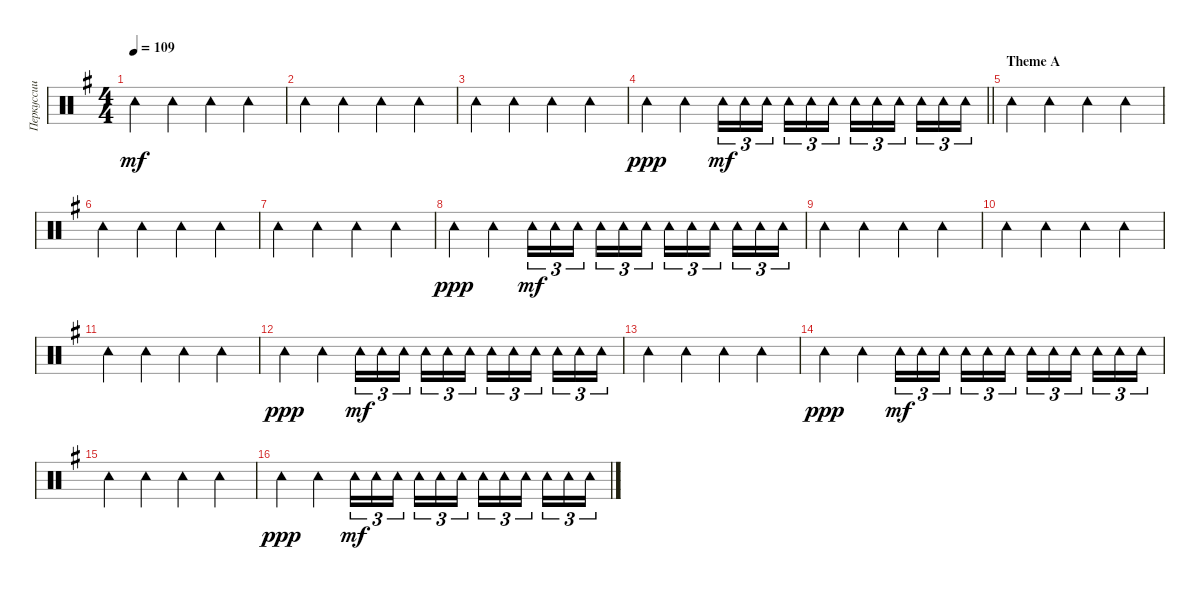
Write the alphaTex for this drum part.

\track ("Перкуссии" "Перкуссии") {instrument percussion}
\staff {score}
\articulation defaults
\ts (4 4)
\tempo 109
\clef neutral
\ks eminor "Tambourine (hit)".4{dy mf} "Tambourine (hit)".4 "Tambourine (hit)".4 "Tambourine (hit)".4
|
"Tambourine (hit)".4 "Tambourine (hit)".4 "Tambourine (hit)".4 "Tambourine (hit)".4 |
"Tambourine (hit)".4 "Tambourine (hit)".4 "Tambourine (hit)".4 "Tambourine (hit)".4 |
\barLineRight lightlight "Tambourine (hit)".4{dy ppp} "Tambourine (hit)".4 "Tambourine (hit)".16{tu (3 2) dy mf volume 0} "Tambourine (hit)".16{tu (3 2) volume 14} "Tambourine (hit)".16{tu (3 2) beam splitsecondary} "Tambourine (hit)".16{tu (3 2)} "Tambourine (hit)".16{tu (3 2)} "Tambourine (hit)".16{tu (3 2)} "Tambourine (hit)".16{tu (3 2)} "Tambourine (hit)".16{tu (3 2)} "Tambourine (hit)".16{tu (3 2) beam splitsecondary} "Tambourine (hit)".16{tu (3 2)} "Tambourine (hit)".16{tu (3 2)} "Tambourine (hit)".16{tu (3 2)}
|
\section ("" "Theme A")
"Tambourine (hit)".4 "Tambourine (hit)".4 "Tambourine (hit)".4 "Tambourine (hit)".4 |
"Tambourine (hit)".4 "Tambourine (hit)".4 "Tambourine (hit)".4 "Tambourine (hit)".4 |
"Tambourine (hit)".4 "Tambourine (hit)".4 "Tambourine (hit)".4 "Tambourine (hit)".4 |
"Tambourine (hit)".4{dy ppp} "Tambourine (hit)".4 "Tambourine (hit)".16{tu (3 2) dy mf volume 0} "Tambourine (hit)".16{tu (3 2) volume 14} "Tambourine (hit)".16{tu (3 2) beam splitsecondary} "Tambourine (hit)".16{tu (3 2)} "Tambourine (hit)".16{tu (3 2)} "Tambourine (hit)".16{tu (3 2)} "Tambourine (hit)".16{tu (3 2)} "Tambourine (hit)".16{tu (3 2)} "Tambourine (hit)".16{tu (3 2) beam splitsecondary} "Tambourine (hit)".16{tu (3 2)} "Tambourine (hit)".16{tu (3 2)} "Tambourine (hit)".16{tu (3 2)} |
"Tambourine (hit)".4 "Tambourine (hit)".4 "Tambourine (hit)".4 "Tambourine (hit)".4 |
"Tambourine (hit)".4 "Tambourine (hit)".4 "Tambourine (hit)".4 "Tambourine (hit)".4 |
"Tambourine (hit)".4 "Tambourine (hit)".4 "Tambourine (hit)".4 "Tambourine (hit)".4 |
"Tambourine (hit)".4{dy ppp} "Tambourine (hit)".4 "Tambourine (hit)".16{tu (3 2) dy mf volume 0} "Tambourine (hit)".16{tu (3 2) volume 14} "Tambourine (hit)".16{tu (3 2) beam splitsecondary} "Tambourine (hit)".16{tu (3 2)} "Tambourine (hit)".16{tu (3 2)} "Tambourine (hit)".16{tu (3 2)} "Tambourine (hit)".16{tu (3 2)} "Tambourine (hit)".16{tu (3 2)} "Tambourine (hit)".16{tu (3 2) beam splitsecondary} "Tambourine (hit)".16{tu (3 2)} "Tambourine (hit)".16{tu (3 2)} "Tambourine (hit)".16{tu (3 2)} |
"Tambourine (hit)".4 "Tambourine (hit)".4 "Tambourine (hit)".4 "Tambourine (hit)".4 |
"Tambourine (hit)".4{dy ppp} "Tambourine (hit)".4 "Tambourine (hit)".16{tu (3 2) dy mf volume 0} "Tambourine (hit)".16{tu (3 2) volume 14} "Tambourine (hit)".16{tu (3 2) beam splitsecondary} "Tambourine (hit)".16{tu (3 2)} "Tambourine (hit)".16{tu (3 2)} "Tambourine (hit)".16{tu (3 2)} "Tambourine (hit)".16{tu (3 2)} "Tambourine (hit)".16{tu (3 2)} "Tambourine (hit)".16{tu (3 2) beam splitsecondary} "Tambourine (hit)".16{tu (3 2)} "Tambourine (hit)".16{tu (3 2)} "Tambourine (hit)".16{tu (3 2)} |
"Tambourine (hit)".4 "Tambourine (hit)".4 "Tambourine (hit)".4 "Tambourine (hit)".4 |
"Tambourine (hit)".4{dy ppp} "Tambourine (hit)".4 "Tambourine (hit)".16{tu (3 2) dy mf volume 0} "Tambourine (hit)".16{tu (3 2) volume 14} "Tambourine (hit)".16{tu (3 2) beam splitsecondary} "Tambourine (hit)".16{tu (3 2)} "Tambourine (hit)".16{tu (3 2)} "Tambourine (hit)".16{tu (3 2)} "Tambourine (hit)".16{tu (3 2)} "Tambourine (hit)".16{tu (3 2)} "Tambourine (hit)".16{tu (3 2) beam splitsecondary} "Tambourine (hit)".16{tu (3 2)} "Tambourine (hit)".16{tu (3 2)} "Tambourine (hit)".16{tu (3 2)}
